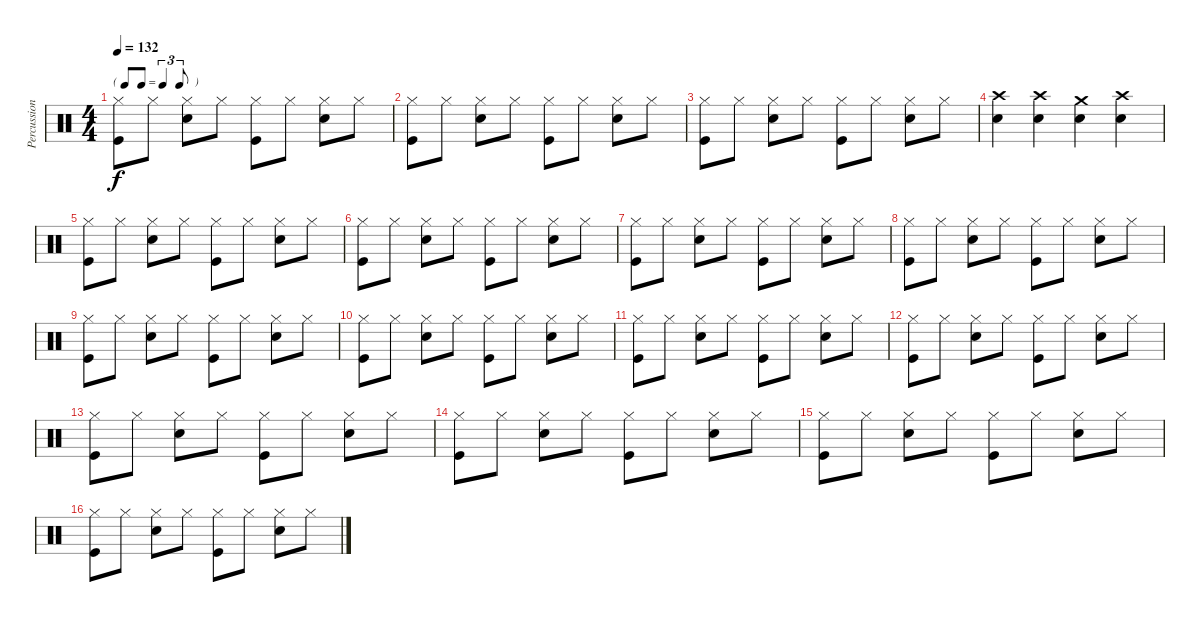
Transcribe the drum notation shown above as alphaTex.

\track ("Percussion" "Percussion") {instrument percussion}
\staff {score}
\articulation defaults
\ts (4 4)
\tf triplet8th
\tempo 132
\clef neutral
\ks c
("Hi-Hat (closed)" "Kick (hit)").8{dy f} "Hi-Hat (closed)".8 ("Hi-Hat (closed)" "Snare (hit) 2").8 "Hi-Hat (closed)".8 ("Hi-Hat (closed)" "Kick (hit)").8 "Hi-Hat (closed)".8 ("Hi-Hat (closed)" "Snare (hit) 2").8 "Hi-Hat (closed)".8 |
("Hi-Hat (closed)" "Kick (hit)").8 "Hi-Hat (closed)".8 ("Hi-Hat (closed)" "Snare (hit) 2").8 "Hi-Hat (closed)".8 ("Hi-Hat (closed)" "Kick (hit)").8 "Hi-Hat (closed)".8 ("Hi-Hat (closed)" "Snare (hit) 2").8 "Hi-Hat (closed)".8 |
("Hi-Hat (closed)" "Kick (hit)").8 "Hi-Hat (closed)".8 ("Hi-Hat (closed)" "Snare (hit) 2").8 "Hi-Hat (closed)".8 ("Hi-Hat (closed)" "Kick (hit)").8 "Hi-Hat (closed)".8 ("Hi-Hat (closed)" "Snare (hit) 2").8 "Hi-Hat (closed)".8 |
("Crash high (hit)" "Snare (hit) 2").4 ("Crash high (hit)" "Snare (hit) 2").4 ("Crash medium (hit)" "Snare (hit) 2").4 ("Crash high (hit)" "Snare (hit) 2").4 |
("Hi-Hat (closed)" "Kick (hit)").8 "Hi-Hat (closed)".8 ("Hi-Hat (closed)" "Snare (hit) 2").8 "Hi-Hat (closed)".8 ("Hi-Hat (closed)" "Kick (hit)").8 "Hi-Hat (closed)".8 ("Hi-Hat (closed)" "Snare (hit) 2").8 "Hi-Hat (closed)".8 |
("Hi-Hat (closed)" "Kick (hit)").8 "Hi-Hat (closed)".8 ("Hi-Hat (closed)" "Snare (hit) 2").8 "Hi-Hat (closed)".8 ("Hi-Hat (closed)" "Kick (hit)").8 "Hi-Hat (closed)".8 ("Hi-Hat (closed)" "Snare (hit) 2").8 "Hi-Hat (closed)".8 |
("Hi-Hat (closed)" "Kick (hit)").8 "Hi-Hat (closed)".8 ("Hi-Hat (closed)" "Snare (hit) 2").8 "Hi-Hat (closed)".8 ("Hi-Hat (closed)" "Kick (hit)").8 "Hi-Hat (closed)".8 ("Hi-Hat (closed)" "Snare (hit) 2").8 "Hi-Hat (closed)".8 |
("Hi-Hat (closed)" "Kick (hit)").8 "Hi-Hat (closed)".8 ("Hi-Hat (closed)" "Snare (hit) 2").8 "Hi-Hat (closed)".8 ("Hi-Hat (closed)" "Kick (hit)").8 "Hi-Hat (closed)".8 ("Hi-Hat (closed)" "Snare (hit) 2").8 "Hi-Hat (closed)".8 |
("Hi-Hat (closed)" "Kick (hit)").8 "Hi-Hat (closed)".8 ("Hi-Hat (closed)" "Snare (hit) 2").8 "Hi-Hat (closed)".8 ("Hi-Hat (closed)" "Kick (hit)").8 "Hi-Hat (closed)".8 ("Hi-Hat (closed)" "Snare (hit) 2").8 "Hi-Hat (closed)".8 |
("Hi-Hat (closed)" "Kick (hit)").8 "Hi-Hat (closed)".8 ("Hi-Hat (closed)" "Snare (hit) 2").8 "Hi-Hat (closed)".8 ("Hi-Hat (closed)" "Kick (hit)").8 "Hi-Hat (closed)".8 ("Hi-Hat (closed)" "Snare (hit) 2").8 "Hi-Hat (closed)".8 |
("Hi-Hat (closed)" "Kick (hit)").8 "Hi-Hat (closed)".8 ("Hi-Hat (closed)" "Snare (hit) 2").8 "Hi-Hat (closed)".8 ("Hi-Hat (closed)" "Kick (hit)").8 "Hi-Hat (closed)".8 ("Hi-Hat (closed)" "Snare (hit) 2").8 "Hi-Hat (closed)".8 |
("Hi-Hat (closed)" "Kick (hit)").8 "Hi-Hat (closed)".8 ("Hi-Hat (closed)" "Snare (hit) 2").8 "Hi-Hat (closed)".8 ("Hi-Hat (closed)" "Kick (hit)").8 "Hi-Hat (closed)".8 ("Hi-Hat (closed)" "Snare (hit) 2").8 "Hi-Hat (closed)".8 |
("Hi-Hat (closed)" "Kick (hit)").8 "Hi-Hat (closed)".8 ("Hi-Hat (closed)" "Snare (hit) 2").8 "Hi-Hat (closed)".8 ("Hi-Hat (closed)" "Kick (hit)").8 "Hi-Hat (closed)".8 ("Hi-Hat (closed)" "Snare (hit) 2").8 "Hi-Hat (closed)".8 |
("Hi-Hat (closed)" "Kick (hit)").8 "Hi-Hat (closed)".8 ("Hi-Hat (closed)" "Snare (hit) 2").8 "Hi-Hat (closed)".8 ("Hi-Hat (closed)" "Kick (hit)").8 "Hi-Hat (closed)".8 ("Hi-Hat (closed)" "Snare (hit) 2").8 "Hi-Hat (closed)".8 |
("Hi-Hat (closed)" "Kick (hit)").8 "Hi-Hat (closed)".8 ("Hi-Hat (closed)" "Snare (hit) 2").8 "Hi-Hat (closed)".8 ("Hi-Hat (closed)" "Kick (hit)").8 "Hi-Hat (closed)".8 ("Hi-Hat (closed)" "Snare (hit) 2").8 "Hi-Hat (closed)".8 |
("Hi-Hat (closed)" "Kick (hit)").8 "Hi-Hat (closed)".8 ("Hi-Hat (closed)" "Snare (hit) 2").8 "Hi-Hat (closed)".8 ("Hi-Hat (closed)" "Kick (hit)").8 "Hi-Hat (closed)".8 ("Hi-Hat (closed)" "Snare (hit) 2").8 "Hi-Hat (closed)".8
